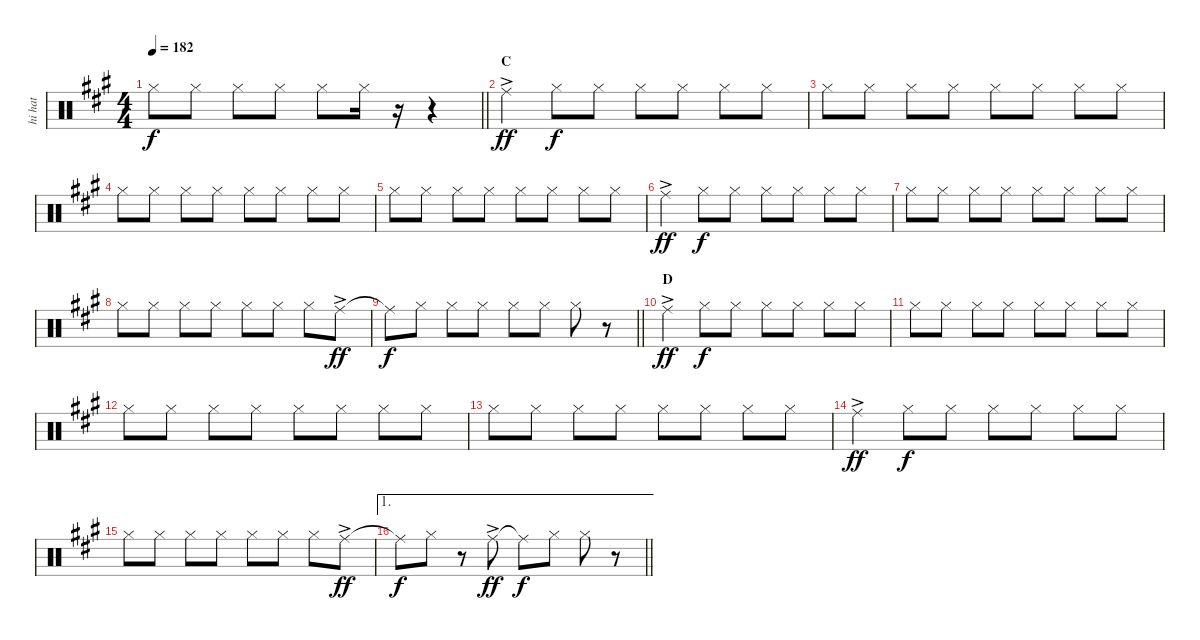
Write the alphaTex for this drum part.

\track ("hi hat" "hi hat") {instrument percussion}
\staff {score}
\articulation defaults
\ts (4 4)
\tempo 182
\clef neutral
\barLineRight lightlight
\ks f#minor "Hi-Hat (closed)".8{dy f} "Hi-Hat (closed)".8 "Hi-Hat (closed)".8 "Hi-Hat (closed)".8 "Hi-Hat (closed)".8 "Hi-Hat (closed)".16
r.16 r.4 |
\section ("" "C")
"Ride (middle)"{ac}.4{dy ff} "Hi-Hat (closed)".8{dy f} "Hi-Hat (closed)".8 "Hi-Hat (closed)".8 "Hi-Hat (closed)".8 "Hi-Hat (closed)".8 "Hi-Hat (closed)".8 |
"Hi-Hat (closed)".8 "Hi-Hat (closed)".8 "Hi-Hat (closed)".8 "Hi-Hat (closed)".8 "Hi-Hat (closed)".8 "Hi-Hat (closed)".8 "Hi-Hat (closed)".8 "Hi-Hat (closed)".8 |
"Hi-Hat (closed)".8 "Hi-Hat (closed)".8 "Hi-Hat (closed)".8 "Hi-Hat (closed)".8 "Hi-Hat (closed)".8 "Hi-Hat (closed)".8 "Hi-Hat (closed)".8 "Hi-Hat (closed)".8 |
"Hi-Hat (closed)".8 "Hi-Hat (closed)".8 "Hi-Hat (closed)".8 "Hi-Hat (closed)".8 "Hi-Hat (closed)".8 "Hi-Hat (closed)".8 "Hi-Hat (closed)".8 "Hi-Hat (closed)".8 |
"Ride (middle)"{ac}.4{dy ff} "Hi-Hat (closed)".8{dy f} "Hi-Hat (closed)".8 "Hi-Hat (closed)".8 "Hi-Hat (closed)".8 "Hi-Hat (closed)".8 "Hi-Hat (closed)".8 |
"Hi-Hat (closed)".8 "Hi-Hat (closed)".8 "Hi-Hat (closed)".8 "Hi-Hat (closed)".8 "Hi-Hat (closed)".8 "Hi-Hat (closed)".8 "Hi-Hat (closed)".8 "Hi-Hat (closed)".8 |
"Hi-Hat (closed)".8 "Hi-Hat (closed)".8 "Hi-Hat (closed)".8 "Hi-Hat (closed)".8 "Hi-Hat (closed)".8 "Hi-Hat (closed)".8 "Hi-Hat (closed)".8 "Ride (middle)"{ac}.8{dy ff} |
\barLineRight lightlight "Ride (middle)"{t}.8{dy f} "Hi-Hat (closed)".8 "Hi-Hat (closed)".8 "Hi-Hat (closed)".8 "Hi-Hat (closed)".8 "Hi-Hat (closed)".8 "Hi-Hat (closed)".8
r.8 |
\section ("" "D")
"Ride (middle)"{ac}.4{dy ff} "Hi-Hat (closed)".8{dy f} "Hi-Hat (closed)".8 "Hi-Hat (closed)".8 "Hi-Hat (closed)".8 "Hi-Hat (closed)".8 "Hi-Hat (closed)".8 |
"Hi-Hat (closed)".8 "Hi-Hat (closed)".8 "Hi-Hat (closed)".8 "Hi-Hat (closed)".8 "Hi-Hat (closed)".8 "Hi-Hat (closed)".8 "Hi-Hat (closed)".8 "Hi-Hat (closed)".8 |
"Hi-Hat (closed)".8 "Hi-Hat (closed)".8 "Hi-Hat (closed)".8 "Hi-Hat (closed)".8 "Hi-Hat (closed)".8 "Hi-Hat (closed)".8 "Hi-Hat (closed)".8 "Hi-Hat (closed)".8 |
"Hi-Hat (closed)".8 "Hi-Hat (closed)".8 "Hi-Hat (closed)".8 "Hi-Hat (closed)".8 "Hi-Hat (closed)".8 "Hi-Hat (closed)".8 "Hi-Hat (closed)".8 "Hi-Hat (closed)".8 |
"Ride (middle)"{ac}.4{dy ff} "Hi-Hat (closed)".8{dy f} "Hi-Hat (closed)".8 "Hi-Hat (closed)".8 "Hi-Hat (closed)".8 "Hi-Hat (closed)".8 "Hi-Hat (closed)".8 |
"Hi-Hat (closed)".8 "Hi-Hat (closed)".8 "Hi-Hat (closed)".8 "Hi-Hat (closed)".8 "Hi-Hat (closed)".8 "Hi-Hat (closed)".8 "Hi-Hat (closed)".8 "Ride (middle)"{ac}.8{dy ff} |
\ae 1
\barLineRight lightlight "Ride (middle)"{t}.8{dy f} "Hi-Hat (closed)".8
r.8 "Ride (middle)"{ac}.8{dy ff} "Ride (middle)"{t}.8{dy f} "Hi-Hat (closed)".8 "Hi-Hat (closed)".8 r.8
